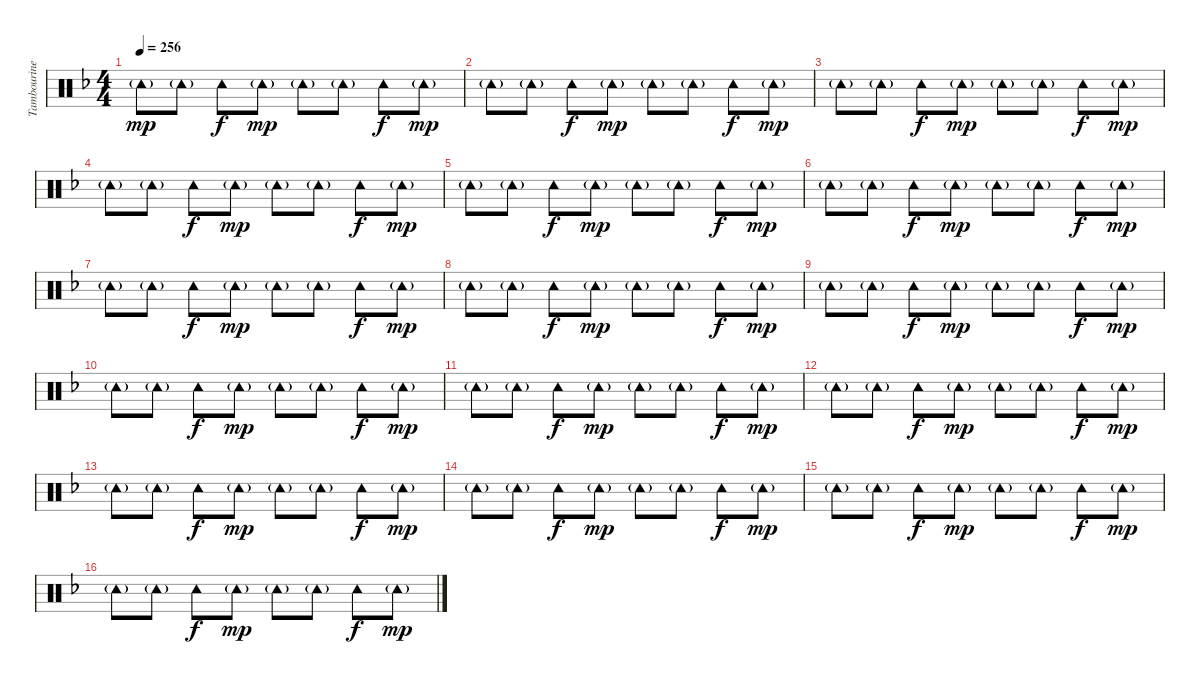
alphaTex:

\track ("Tambourine" "Tambourine") {instrument percussion}
\staff {score}
\articulation defaults
\ts (4 4)
\tempo 256
\clef neutral
\ks f "Tambourine (hit)"{g}.8{dy mp} "Tambourine (hit)"{g}.8 "Tambourine (hit)".8{dy f} "Tambourine (hit)"{g}.8{dy mp} "Tambourine (hit)"{g}.8 "Tambourine (hit)"{g}.8 "Tambourine (hit)".8{dy f} "Tambourine (hit)"{g}.8{dy mp}
|
"Tambourine (hit)"{g}.8 "Tambourine (hit)"{g}.8 "Tambourine (hit)".8{dy f} "Tambourine (hit)"{g}.8{dy mp} "Tambourine (hit)"{g}.8 "Tambourine (hit)"{g}.8 "Tambourine (hit)".8{dy f} "Tambourine (hit)"{g}.8{dy mp} |
"Tambourine (hit)"{g}.8 "Tambourine (hit)"{g}.8 "Tambourine (hit)".8{dy f} "Tambourine (hit)"{g}.8{dy mp} "Tambourine (hit)"{g}.8 "Tambourine (hit)"{g}.8 "Tambourine (hit)".8{dy f} "Tambourine (hit)"{g}.8{dy mp} |
"Tambourine (hit)"{g}.8 "Tambourine (hit)"{g}.8 "Tambourine (hit)".8{dy f} "Tambourine (hit)"{g}.8{dy mp} "Tambourine (hit)"{g}.8 "Tambourine (hit)"{g}.8 "Tambourine (hit)".8{dy f} "Tambourine (hit)"{g}.8{dy mp} |
"Tambourine (hit)"{g}.8 "Tambourine (hit)"{g}.8 "Tambourine (hit)".8{dy f} "Tambourine (hit)"{g}.8{dy mp} "Tambourine (hit)"{g}.8 "Tambourine (hit)"{g}.8 "Tambourine (hit)".8{dy f} "Tambourine (hit)"{g}.8{dy mp} |
"Tambourine (hit)"{g}.8 "Tambourine (hit)"{g}.8 "Tambourine (hit)".8{dy f} "Tambourine (hit)"{g}.8{dy mp} "Tambourine (hit)"{g}.8 "Tambourine (hit)"{g}.8 "Tambourine (hit)".8{dy f} "Tambourine (hit)"{g}.8{dy mp} |
"Tambourine (hit)"{g}.8 "Tambourine (hit)"{g}.8 "Tambourine (hit)".8{dy f} "Tambourine (hit)"{g}.8{dy mp} "Tambourine (hit)"{g}.8 "Tambourine (hit)"{g}.8 "Tambourine (hit)".8{dy f} "Tambourine (hit)"{g}.8{dy mp} |
"Tambourine (hit)"{g}.8 "Tambourine (hit)"{g}.8 "Tambourine (hit)".8{dy f} "Tambourine (hit)"{g}.8{dy mp} "Tambourine (hit)"{g}.8 "Tambourine (hit)"{g}.8 "Tambourine (hit)".8{dy f} "Tambourine (hit)"{g}.8{dy mp} |
"Tambourine (hit)"{g}.8 "Tambourine (hit)"{g}.8 "Tambourine (hit)".8{dy f} "Tambourine (hit)"{g}.8{dy mp} "Tambourine (hit)"{g}.8 "Tambourine (hit)"{g}.8 "Tambourine (hit)".8{dy f} "Tambourine (hit)"{g}.8{dy mp} |
"Tambourine (hit)"{g}.8 "Tambourine (hit)"{g}.8 "Tambourine (hit)".8{dy f} "Tambourine (hit)"{g}.8{dy mp} "Tambourine (hit)"{g}.8 "Tambourine (hit)"{g}.8 "Tambourine (hit)".8{dy f} "Tambourine (hit)"{g}.8{dy mp} |
"Tambourine (hit)"{g}.8 "Tambourine (hit)"{g}.8 "Tambourine (hit)".8{dy f} "Tambourine (hit)"{g}.8{dy mp} "Tambourine (hit)"{g}.8 "Tambourine (hit)"{g}.8 "Tambourine (hit)".8{dy f} "Tambourine (hit)"{g}.8{dy mp} |
"Tambourine (hit)"{g}.8 "Tambourine (hit)"{g}.8 "Tambourine (hit)".8{dy f} "Tambourine (hit)"{g}.8{dy mp} "Tambourine (hit)"{g}.8 "Tambourine (hit)"{g}.8 "Tambourine (hit)".8{dy f} "Tambourine (hit)"{g}.8{dy mp} |
"Tambourine (hit)"{g}.8 "Tambourine (hit)"{g}.8 "Tambourine (hit)".8{dy f} "Tambourine (hit)"{g}.8{dy mp} "Tambourine (hit)"{g}.8 "Tambourine (hit)"{g}.8 "Tambourine (hit)".8{dy f} "Tambourine (hit)"{g}.8{dy mp} |
"Tambourine (hit)"{g}.8 "Tambourine (hit)"{g}.8 "Tambourine (hit)".8{dy f} "Tambourine (hit)"{g}.8{dy mp} "Tambourine (hit)"{g}.8 "Tambourine (hit)"{g}.8 "Tambourine (hit)".8{dy f} "Tambourine (hit)"{g}.8{dy mp} |
"Tambourine (hit)"{g}.8 "Tambourine (hit)"{g}.8 "Tambourine (hit)".8{dy f} "Tambourine (hit)"{g}.8{dy mp} "Tambourine (hit)"{g}.8 "Tambourine (hit)"{g}.8 "Tambourine (hit)".8{dy f} "Tambourine (hit)"{g}.8{dy mp} |
"Tambourine (hit)"{g}.8 "Tambourine (hit)"{g}.8 "Tambourine (hit)".8{dy f} "Tambourine (hit)"{g}.8{dy mp} "Tambourine (hit)"{g}.8 "Tambourine (hit)"{g}.8 "Tambourine (hit)".8{dy f} "Tambourine (hit)"{g}.8{dy mp}
